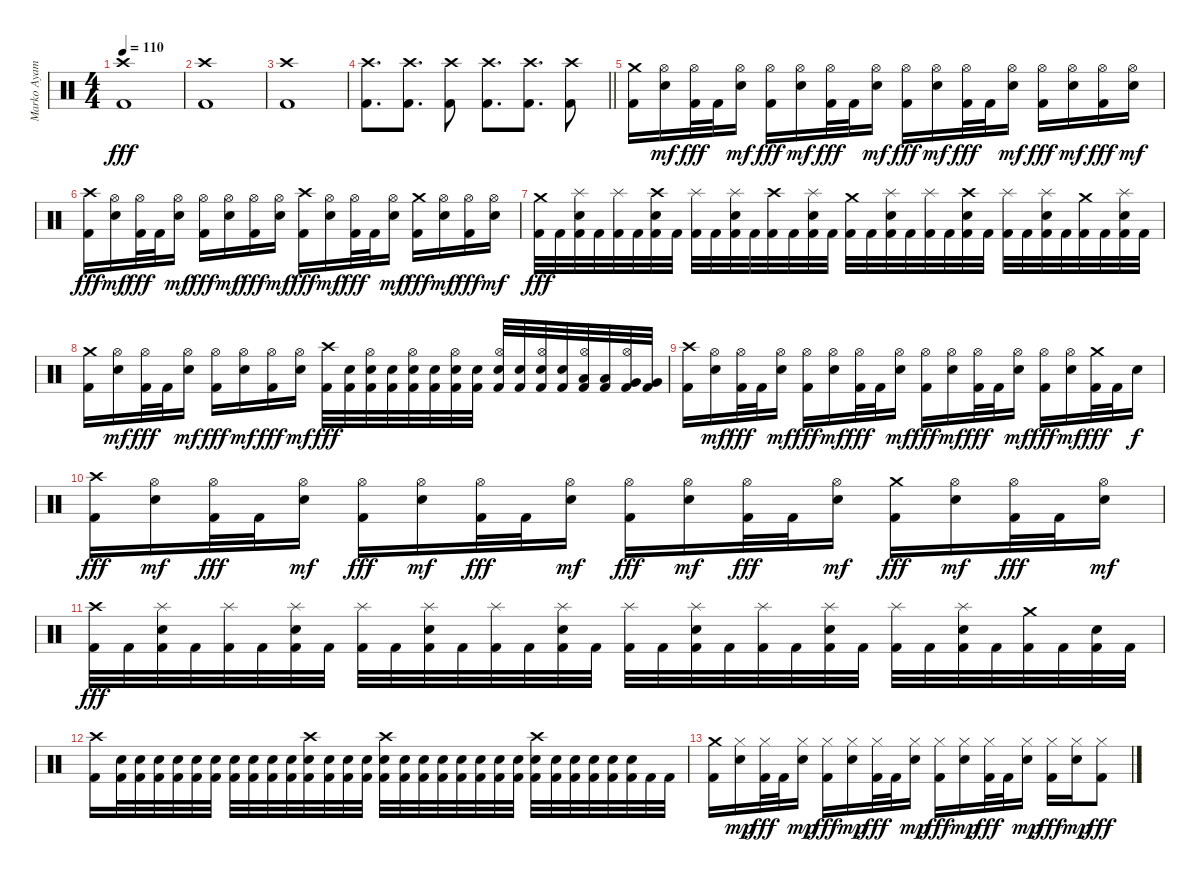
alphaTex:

\track ("Marko Ayamani" "Marko Ayam") {instrument percussion}
\staff {score}
\articulation defaults
\ts (4 4)
\tempo 110
\clef neutral
\ks c
("Crash high (hit)" "Kick (hit) 2").1{dy fff} |
("Crash high (hit)" "Kick (hit) 2").1 |
("Crash high (hit)" "Kick (hit) 2").1 |
\barLineRight lightlight
("Crash high (hit)" "Kick (hit) 2").8{d} ("Crash high (hit)" "Kick (hit) 2").8{d} ("Crash high (hit)" "Kick (hit) 2").8 ("Crash high (hit)" "Kick (hit) 2").8{d} ("Crash high (hit)" "Kick (hit) 2").8{d} ("Crash high (hit)" "Kick (hit) 2").8 |
("Crash medium (hit)" "Kick (hit) 2").16 ("Hi-Hat (open)" "Snare (hit) 2").16{dy mf} ("Hi-Hat (open)" "Kick (hit) 2").32{dy fff} "Kick (hit) 2".32 ("Hi-Hat (open)" "Snare (hit) 2").16{dy mf} ("Hi-Hat (open)" "Kick (hit) 2").16{dy fff} ("Hi-Hat (open)" "Snare (hit) 2").16{dy mf} ("Hi-Hat (open)" "Kick (hit) 2").32{dy fff} "Kick (hit) 2".32 ("Hi-Hat (open)" "Snare (hit) 2").16{dy mf} ("Hi-Hat (open)" "Kick (hit) 2").16{dy fff} ("Hi-Hat (open)" "Snare (hit) 2").16{dy mf} ("Hi-Hat (open)" "Kick (hit) 2").32{dy fff} "Kick (hit) 2".32 ("Hi-Hat (open)" "Snare (hit) 2").16{dy mf} ("Hi-Hat (open)" "Kick (hit) 2").16{dy fff} ("Hi-Hat (open)" "Snare (hit) 2").16{dy mf} ("Hi-Hat (open)" "Kick (hit) 2").16{dy fff} ("Hi-Hat (open)" "Snare (hit) 2").16{dy mf} |
("Crash high (hit)" "Kick (hit) 2").16{dy fff} ("Hi-Hat (open)" "Snare (hit) 2").16{dy mf} ("Hi-Hat (open)" "Kick (hit) 2").32{dy fff} "Kick (hit) 2".32 ("Hi-Hat (open)" "Snare (hit) 2").16{dy mf} ("Hi-Hat (open)" "Kick (hit) 2").16{dy fff} ("Hi-Hat (open)" "Snare (hit) 2").16{dy mf} ("Hi-Hat (open)" "Kick (hit) 2").16{dy fff} ("Hi-Hat (open)" "Snare (hit) 2").16{dy mf} ("Crash high (hit)" "Kick (hit) 2").16{dy fff} ("Hi-Hat (open)" "Snare (hit) 2").16{dy mf} ("Hi-Hat (open)" "Kick (hit) 2").32{dy fff} "Kick (hit) 2".32 ("Hi-Hat (open)" "Snare (hit) 2").16{dy mf} ("Crash medium (hit)" "Kick (hit) 2").16{dy fff} ("Hi-Hat (open)" "Snare (hit) 2").16{dy mf} ("Hi-Hat (open)" "Kick (hit) 2").16{dy fff} ("Hi-Hat (open)" "Snare (hit) 2").16{dy mf} |
("Crash medium (hit)" "Kick (hit) 2").32{dy fff} "Kick (hit) 2".32 ("Splash (hit)" "Snare (hit) 2" "Kick (hit) 2").32 "Kick (hit) 2".32 ("Splash (hit)" "Kick (hit) 2").32 "Kick (hit) 2".32 ("Crash high (hit)" "Snare (hit) 2" "Kick (hit) 2").32 "Kick (hit) 2".32 ("Splash (hit)" "Kick (hit) 2").32 "Kick (hit) 2".32 ("Splash (hit)" "Snare (hit) 2" "Kick (hit) 2").32 "Kick (hit) 2".32 ("Crash high (hit)" "Kick (hit) 2").32 "Kick (hit) 2".32 ("Splash (hit)" "Snare (hit) 2" "Kick (hit) 2").32 "Kick (hit) 2".32 ("Crash medium (hit)" "Kick (hit) 2").32 "Kick (hit) 2".32 ("Splash (hit)" "Snare (hit) 2" "Kick (hit) 2").32 "Kick (hit) 2".32 ("Splash (hit)" "Kick (hit) 2").32 "Kick (hit) 2".32 ("Crash high (hit)" "Snare (hit) 2" "Kick (hit) 2").32 "Kick (hit) 2".32 ("Splash (hit)" "Kick (hit) 2").32 "Kick (hit) 2".32 ("Splash (hit)" "Snare (hit) 2" "Kick (hit) 2").32 "Kick (hit) 2".32 ("Crash medium (hit)" "Kick (hit) 2").32 "Kick (hit) 2".32 ("Splash (hit)" "Snare (hit) 2" "Kick (hit) 2").32 "Kick (hit) 2".32 |
("Crash medium (hit)" "Kick (hit) 2").16 ("Hi-Hat (open)" "Snare (hit) 2").16{dy mf} ("Hi-Hat (open)" "Kick (hit) 2").32{dy fff} "Kick (hit) 2".32 ("Hi-Hat (open)" "Snare (hit) 2").16{dy mf} ("Hi-Hat (open)" "Kick (hit) 2").16{dy fff} ("Hi-Hat (open)" "Snare (hit) 2").16{dy mf} ("Hi-Hat (open)" "Kick (hit) 2").16{dy fff} ("Hi-Hat (open)" "Snare (hit) 2").16{dy mf} ("Crash high (hit)" "Kick (hit) 2").32{dy fff} ("Snare (hit) 2" "Kick (hit) 2").32 ("Hi-Hat (open)" "Snare (hit) 2" "Kick (hit) 2").32 ("Snare (hit) 2" "Kick (hit) 2").32 ("Hi-Hat (open)" "Snare (hit) 2" "Kick (hit) 2").32 ("Snare (hit) 2" "Kick (hit) 2").32 ("Hi-Hat (open)" "Snare (hit) 2" "Kick (hit) 2").32 ("Snare (hit) 2" "Kick (hit) 2").32 ("Hi-Hat (open)" "Snare (hit) 2" "Kick (hit) 2").32 ("Snare (hit) 2" "Kick (hit) 2").32 ("Hi-Hat (open)" "Snare (hit) 2" "Kick (hit) 2").32 ("Snare (hit) 2" "Kick (hit) 2").32 ("Hi-Hat (open)" "Low Tom (hit)" "Kick (hit) 2").32 ("Low Tom (hit)" "Kick (hit) 2").32 ("Hi-Hat (open)" "Very Low Tom (hit)" "Kick (hit) 2").32 ("Very Low Tom (hit)" "Kick (hit) 2").32 |
("Crash high (hit)" "Kick (hit) 2").16 ("Hi-Hat (open)" "Snare (hit) 2").16{dy mf} ("Hi-Hat (open)" "Kick (hit) 2").32{dy fff} "Kick (hit) 2".32 ("Hi-Hat (open)" "Snare (hit) 2").16{dy mf} ("Hi-Hat (open)" "Kick (hit) 2").16{dy fff} ("Hi-Hat (open)" "Snare (hit) 2").16{dy mf} ("Hi-Hat (open)" "Kick (hit) 2").32{dy fff} "Kick (hit) 2".32 ("Hi-Hat (open)" "Snare (hit) 2").16{dy mf} ("Hi-Hat (open)" "Kick (hit) 2").16{dy fff} ("Hi-Hat (open)" "Snare (hit) 2").16{dy mf} ("Hi-Hat (open)" "Kick (hit) 2").32{dy fff} "Kick (hit) 2".32 ("Hi-Hat (open)" "Snare (hit) 2").16{dy mf} ("Hi-Hat (open)" "Kick (hit) 2").16{dy fff} ("Hi-Hat (open)" "Snare (hit) 2").16{dy mf} ("Crash medium (hit)" "Kick (hit) 2").32{dy fff} "Kick (hit) 2".32 "Snare (hit) 2".16{dy f} |
("Crash high (hit)" "Kick (hit) 2").16{dy fff} ("Hi-Hat (open)" "Snare (hit) 2").16{dy mf} ("Hi-Hat (open)" "Kick (hit) 2").32{dy fff} "Kick (hit) 2".32 ("Hi-Hat (open)" "Snare (hit) 2").16{dy mf} ("Hi-Hat (open)" "Kick (hit) 2").16{dy fff} ("Hi-Hat (open)" "Snare (hit) 2").16{dy mf} ("Hi-Hat (open)" "Kick (hit) 2").32{dy fff} "Kick (hit) 2".32 ("Hi-Hat (open)" "Snare (hit) 2").16{dy mf} ("Hi-Hat (open)" "Kick (hit) 2").16{dy fff} ("Hi-Hat (open)" "Snare (hit) 2").16{dy mf} ("Hi-Hat (open)" "Kick (hit) 2").32{dy fff} "Kick (hit) 2".32 ("Hi-Hat (open)" "Snare (hit) 2").16{dy mf} ("Crash medium (hit)" "Kick (hit) 2").16{dy fff} ("Hi-Hat (open)" "Snare (hit) 2").16{dy mf} ("Hi-Hat (open)" "Kick (hit) 2").32{dy fff} "Kick (hit) 2".32 ("Hi-Hat (open)" "Snare (hit) 2").16{dy mf} |
("Crash high (hit)" "Kick (hit) 2").32{dy fff} "Kick (hit) 2".32 ("Splash (hit)" "Snare (hit) 2" "Kick (hit) 2").32 "Kick (hit) 2".32 ("Splash (hit)" "Kick (hit) 2").32 "Kick (hit) 2".32 ("Splash (hit)" "Snare (hit) 2" "Kick (hit) 2").32 "Kick (hit) 2".32 ("Splash (hit)" "Kick (hit) 2").32 "Kick (hit) 2".32 ("Splash (hit)" "Snare (hit) 2" "Kick (hit) 2").32 "Kick (hit) 2".32 ("Splash (hit)" "Kick (hit) 2").32 "Kick (hit) 2".32 ("Splash (hit)" "Snare (hit) 2" "Kick (hit) 2").32 "Kick (hit) 2".32 ("Splash (hit)" "Kick (hit) 2").32 "Kick (hit) 2".32 ("Splash (hit)" "Snare (hit) 2" "Kick (hit) 2").32 "Kick (hit) 2".32 ("Splash (hit)" "Kick (hit) 2").32 "Kick (hit) 2".32 ("Splash (hit)" "Snare (hit) 2" "Kick (hit) 2").32 "Kick (hit) 2".32 ("Splash (hit)" "Kick (hit) 2").32 "Kick (hit) 2".32 ("Splash (hit)" "Snare (hit) 2" "Kick (hit) 2").32 "Kick (hit) 2".32 ("Crash medium (hit)" "Kick (hit) 2").32 "Kick (hit) 2".32 ("Snare (hit) 2" "Kick (hit) 2").32 "Kick (hit) 2".32 |
("Crash high (hit)" "Kick (hit) 2").16 ("Snare (hit) 2" "Kick (hit) 2").32 ("Snare (hit) 2" "Kick (hit) 2").32 ("Snare (hit) 2" "Kick (hit) 2").32 ("Snare (hit) 2" "Kick (hit) 2").32 ("Snare (hit) 2" "Kick (hit) 2").32 ("Snare (hit) 2" "Kick (hit) 2").32 ("Snare (hit) 2" "Kick (hit) 2").32 ("Snare (hit) 2" "Kick (hit) 2").32 ("Snare (hit) 2" "Kick (hit) 2").32 ("Snare (hit) 2" "Kick (hit) 2").32 ("Crash high (hit)" "Snare (hit) 2" "Kick (hit) 2").32 ("Snare (hit) 2" "Kick (hit) 2").32 ("Snare (hit) 2" "Kick (hit) 2").32 ("Snare (hit) 2" "Kick (hit) 2").32 ("Crash high (hit)" "Snare (hit) 2" "Kick (hit) 2").32 ("Snare (hit) 2" "Kick (hit) 2").32 ("Snare (hit) 2" "Kick (hit) 2").32 ("Snare (hit) 2" "Kick (hit) 2").32 ("Snare (hit) 2" "Kick (hit) 2").32 ("Snare (hit) 2" "Kick (hit) 2").32 ("Snare (hit) 2" "Kick (hit) 2").32 ("Snare (hit) 2" "Kick (hit) 2").32 ("Crash high (hit)" "Snare (hit) 2" "Kick (hit) 2").32 ("Snare (hit) 2" "Kick (hit) 2").32 ("Snare (hit) 2" "Kick (hit) 2").32 ("Snare (hit) 2" "Kick (hit) 2").32 ("Snare (hit) 2" "Kick (hit) 2").32 ("Snare (hit) 2" "Kick (hit) 2").32 "Kick (hit) 2".32 "Kick (hit) 2".32 |
("Crash medium (hit)" "Kick (hit) 2").16 ("Hi-Hat (closed)" "Snare (hit) 2").16{dy mp} ("Hi-Hat (closed)" "Kick (hit) 2").32{dy fff} "Kick (hit) 2".32 ("Hi-Hat (closed)" "Snare (hit) 2").16{dy mp} ("Hi-Hat (closed)" "Kick (hit) 2").16{dy fff} ("Hi-Hat (closed)" "Snare (hit) 2").16{dy mp} ("Hi-Hat (closed)" "Kick (hit) 2").32{dy fff} "Kick (hit) 2".32 ("Hi-Hat (closed)" "Snare (hit) 2").16{dy mp} ("Hi-Hat (closed)" "Kick (hit) 2").16{dy fff} ("Hi-Hat (closed)" "Snare (hit) 2").16{dy mp} ("Hi-Hat (closed)" "Kick (hit) 2").32{dy fff} "Kick (hit) 2".32 ("Hi-Hat (closed)" "Snare (hit) 2").16{dy mp} ("Hi-Hat (closed)" "Kick (hit) 2").16{dy fff} ("Hi-Hat (closed)" "Snare (hit) 2").16{dy mp} ("Hi-Hat (closed)" "Kick (hit) 2").8{dy fff}
